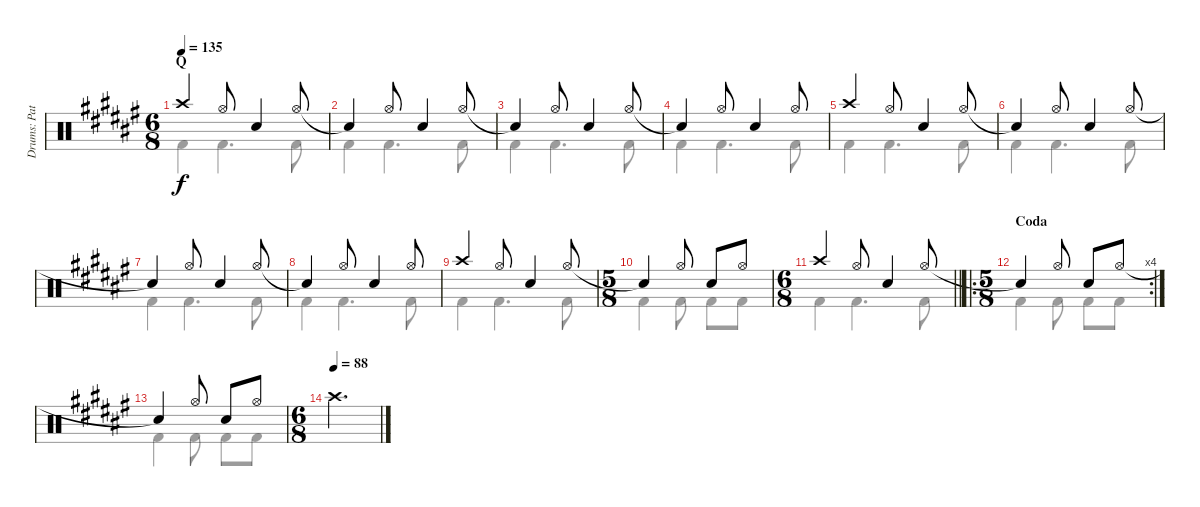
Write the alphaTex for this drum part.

\track ("Drums: Pat" "Drums: Pat") {instrument percussion}
\staff {score}
\articulation defaults
\voice
\ts (6 8)
\section ("" "Q")
\tempo 135
\clef neutral
\ks f# "Crash high (hit)".4{dy f} "Hi-Hat (open)".8 "Snare (hit) 2".4 "Hi-Hat (open)".8
|
"Snare (hit)"{t}.4 "Hi-Hat (open)".8 "Snare (hit) 2".4 "Hi-Hat (open)".8 |
"Snare (hit)"{t}.4 "Hi-Hat (open)".8 "Snare (hit) 2".4 "Hi-Hat (open)".8 |
"Snare (hit)"{t}.4 "Hi-Hat (open)".8 "Snare (hit) 2".4 "Hi-Hat (open)".8 |
"Crash high (hit)".4 "Hi-Hat (open)".8 "Snare (hit) 2".4 "Hi-Hat (open)".8 |
"Snare (hit)"{t}.4 "Hi-Hat (open)".8 "Snare (hit) 2".4 "Hi-Hat (open)".8 |
"Snare (hit)"{t}.4 "Hi-Hat (open)".8 "Snare (hit) 2".4 "Hi-Hat (open)".8 |
"Snare (hit)"{t}.4 "Hi-Hat (open)".8 "Snare (hit) 2".4 "Hi-Hat (open)".8 |
"Crash high (hit)".4 "Hi-Hat (open)".8 "Snare (hit) 2".4 "Hi-Hat (open)".8 |
\ts (5 8)
"Snare (hit)"{t}.4 "Hi-Hat (open)".8 "Snare (hit) 2".8 "Hi-Hat (open)".8 |
\ts (6 8)
\barLineRight lightlight "Crash high (hit)".4 "Hi-Hat (open)".8 "Snare (hit) 2".4 "Hi-Hat (open)".8
|
\ro
\rc 4
\ts (5 8)
\section ("" "Coda")
"Snare (hit)"{t}.4 "Hi-Hat (open)".8 "Snare (hit) 2".8 "Hi-Hat (open)".8 |
"Snare (hit)"{t}.4 "Hi-Hat (open)".8 "Snare (hit) 2".8 "Hi-Hat (open)".8 |
\ts (6 8)
\tempo (88)
"Crash high (hit)".2{d volume 0} |
|
\voice
\clef neutral
\ottava regular
\simile none
\ks f# "Kick (hit) 2".4{dy f} "Kick (hit) 2".4{d} "Kick (hit) 2".8
|
"Kick (hit) 2".4 "Kick (hit) 2".4{d} "Kick (hit) 2".8 |
"Kick (hit) 2".4 "Kick (hit) 2".4{d} "Kick (hit) 2".8 |
"Kick (hit) 2".4 "Kick (hit) 2".4{d} "Kick (hit) 2".8 |
"Kick (hit) 2".4 "Kick (hit) 2".4{d} "Kick (hit) 2".8 |
"Kick (hit) 2".4 "Kick (hit) 2".4{d} "Kick (hit) 2".8 |
"Kick (hit) 2".4 "Kick (hit) 2".4{d} "Kick (hit) 2".8 |
"Kick (hit) 2".4 "Kick (hit) 2".4{d} "Kick (hit) 2".8 |
"Kick (hit) 2".4 "Kick (hit) 2".4{d} "Kick (hit) 2".8 |
"Kick (hit) 2".4 "Kick (hit) 2".8 "Kick (hit) 2".8 "Kick (hit) 2".8 |
\barLineRight lightlight "Kick (hit) 2".4 "Kick (hit) 2".4{d} "Kick (hit) 2".8
|
"Kick (hit) 2".4 "Kick (hit) 2".8 "Kick (hit) 2".8 "Kick (hit) 2".8 |
"Kick (hit) 2".4 "Kick (hit) 2".8 "Kick (hit) 2".8 "Kick (hit) 2".8 |
|
|
